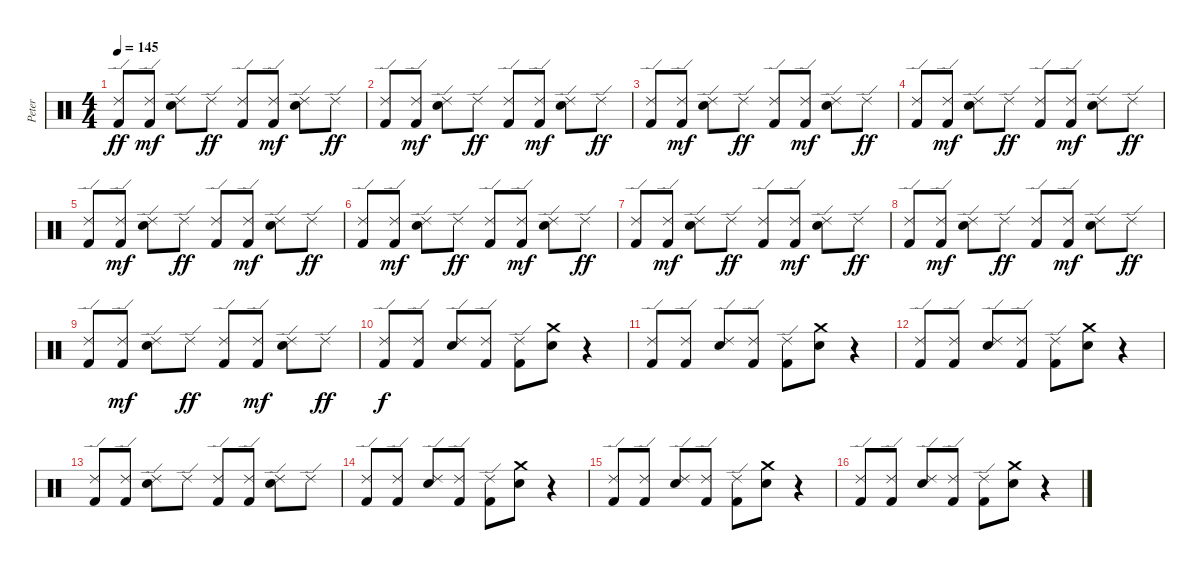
\track ("Peter" "Peter") {instrument percussion}
\staff {score}
\articulation defaults
\ts (4 4)
\tempo 145
\clef neutral
\ks c
("Ride (edge) 2" "Kick (hit) 2").8{dy ff} ("Ride (edge) 2" "Kick (hit) 2").8{dy mf} ("Ride (edge) 2" "Electric Snare (hit)").8 "Ride (edge) 2".8{dy ff} ("Ride (edge) 2" "Kick (hit) 2").8 ("Ride (edge) 2" "Kick (hit) 2").8{dy mf} ("Ride (edge) 2" "Electric Snare (hit)").8 "Ride (edge) 2".8{dy ff} |
("Ride (edge) 2" "Kick (hit) 2").8 ("Ride (edge) 2" "Kick (hit) 2").8{dy mf} ("Ride (edge) 2" "Electric Snare (hit)").8 "Ride (edge) 2".8{dy ff} ("Ride (edge) 2" "Kick (hit) 2").8 ("Ride (edge) 2" "Kick (hit) 2").8{dy mf} ("Ride (edge) 2" "Electric Snare (hit)").8 "Ride (edge) 2".8{dy ff} |
("Ride (edge) 2" "Kick (hit) 2").8 ("Ride (edge) 2" "Kick (hit) 2").8{dy mf} ("Ride (edge) 2" "Electric Snare (hit)").8 "Ride (edge) 2".8{dy ff} ("Ride (edge) 2" "Kick (hit) 2").8 ("Ride (edge) 2" "Kick (hit) 2").8{dy mf} ("Ride (edge) 2" "Electric Snare (hit)").8 "Ride (edge) 2".8{dy ff} |
("Ride (edge) 2" "Kick (hit) 2").8 ("Ride (edge) 2" "Kick (hit) 2").8{dy mf} ("Ride (edge) 2" "Electric Snare (hit)").8 "Ride (edge) 2".8{dy ff} ("Ride (edge) 2" "Kick (hit) 2").8 ("Ride (edge) 2" "Kick (hit) 2").8{dy mf} ("Ride (edge) 2" "Electric Snare (hit)").8 "Ride (edge) 2".8{dy ff} |
("Ride (edge) 2" "Kick (hit) 2").8 ("Ride (edge) 2" "Kick (hit) 2").8{dy mf} ("Ride (edge) 2" "Electric Snare (hit)").8 "Ride (edge) 2".8{dy ff} ("Ride (edge) 2" "Kick (hit) 2").8 ("Ride (edge) 2" "Kick (hit) 2").8{dy mf} ("Ride (edge) 2" "Electric Snare (hit)").8 "Ride (edge) 2".8{dy ff} |
("Ride (edge) 2" "Kick (hit) 2").8 ("Ride (edge) 2" "Kick (hit) 2").8{dy mf} ("Ride (edge) 2" "Electric Snare (hit)").8 "Ride (edge) 2".8{dy ff} ("Ride (edge) 2" "Kick (hit) 2").8 ("Ride (edge) 2" "Kick (hit) 2").8{dy mf} ("Ride (edge) 2" "Electric Snare (hit)").8 "Ride (edge) 2".8{dy ff} |
("Ride (edge) 2" "Kick (hit) 2").8 ("Ride (edge) 2" "Kick (hit) 2").8{dy mf} ("Ride (edge) 2" "Electric Snare (hit)").8 "Ride (edge) 2".8{dy ff} ("Ride (edge) 2" "Kick (hit) 2").8 ("Ride (edge) 2" "Kick (hit) 2").8{dy mf} ("Ride (edge) 2" "Electric Snare (hit)").8 "Ride (edge) 2".8{dy ff} |
("Ride (edge) 2" "Kick (hit) 2").8 ("Ride (edge) 2" "Kick (hit) 2").8{dy mf} ("Ride (edge) 2" "Electric Snare (hit)").8 "Ride (edge) 2".8{dy ff} ("Ride (edge) 2" "Kick (hit) 2").8 ("Ride (edge) 2" "Kick (hit) 2").8{dy mf} ("Ride (edge) 2" "Electric Snare (hit)").8 "Ride (edge) 2".8{dy ff} |
("Ride (edge) 2" "Kick (hit) 2").8 ("Ride (edge) 2" "Kick (hit) 2").8{dy mf} ("Ride (edge) 2" "Electric Snare (hit)").8 "Ride (edge) 2".8{dy ff} ("Ride (edge) 2" "Kick (hit) 2").8 ("Ride (edge) 2" "Kick (hit) 2").8{dy mf} ("Ride (edge) 2" "Electric Snare (hit)").8 "Ride (edge) 2".8{dy ff} |
("Ride (edge) 2" "Kick (hit) 2").8{dy f} ("Ride (edge) 2" "Kick (hit) 2").8 ("Ride (edge) 2" "Electric Snare (hit)").8 ("Ride (edge) 2" "Kick (hit) 2").8 ("Ride (edge) 2" "Kick (hit) 2").8 ("Crash medium (hit)" "Electric Snare (hit)").8 r.4 |
("Ride (edge) 2" "Kick (hit) 2").8 ("Ride (edge) 2" "Kick (hit) 2").8 ("Ride (edge) 2" "Electric Snare (hit)").8 ("Ride (edge) 2" "Kick (hit) 2").8 ("Ride (edge) 2" "Kick (hit) 2").8 ("Crash medium (hit)" "Electric Snare (hit)").8 r.4 |
("Ride (edge) 2" "Kick (hit) 2").8 ("Ride (edge) 2" "Kick (hit) 2").8 ("Ride (edge) 2" "Electric Snare (hit)").8 ("Ride (edge) 2" "Kick (hit) 2").8 ("Ride (edge) 2" "Kick (hit) 2").8 ("Crash medium (hit)" "Electric Snare (hit)").8 r.4 |
("Ride (edge) 2" "Kick (hit) 2").8 ("Ride (edge) 2" "Kick (hit) 2").8 ("Ride (edge) 2" "Electric Snare (hit)").8 "Ride (edge) 2".8 ("Ride (edge) 2" "Kick (hit) 2").8 ("Ride (edge) 2" "Kick (hit) 2").8 ("Ride (edge) 2" "Electric Snare (hit)").8 "Ride (edge) 2".8 |
("Ride (edge) 2" "Kick (hit) 2").8 ("Ride (edge) 2" "Kick (hit) 2").8 ("Ride (edge) 2" "Electric Snare (hit)").8 ("Ride (edge) 2" "Kick (hit) 2").8 ("Ride (edge) 2" "Kick (hit) 2").8 ("Crash medium (hit)" "Electric Snare (hit)").8 r.4 |
("Ride (edge) 2" "Kick (hit) 2").8 ("Ride (edge) 2" "Kick (hit) 2").8 ("Ride (edge) 2" "Electric Snare (hit)").8 ("Ride (edge) 2" "Kick (hit) 2").8 ("Ride (edge) 2" "Kick (hit) 2").8 ("Crash medium (hit)" "Electric Snare (hit)").8 r.4 |
("Ride (edge) 2" "Kick (hit) 2").8 ("Ride (edge) 2" "Kick (hit) 2").8 ("Ride (edge) 2" "Electric Snare (hit)").8 ("Ride (edge) 2" "Kick (hit) 2").8 ("Ride (edge) 2" "Kick (hit) 2").8 ("Crash medium (hit)" "Electric Snare (hit)").8 r.4
